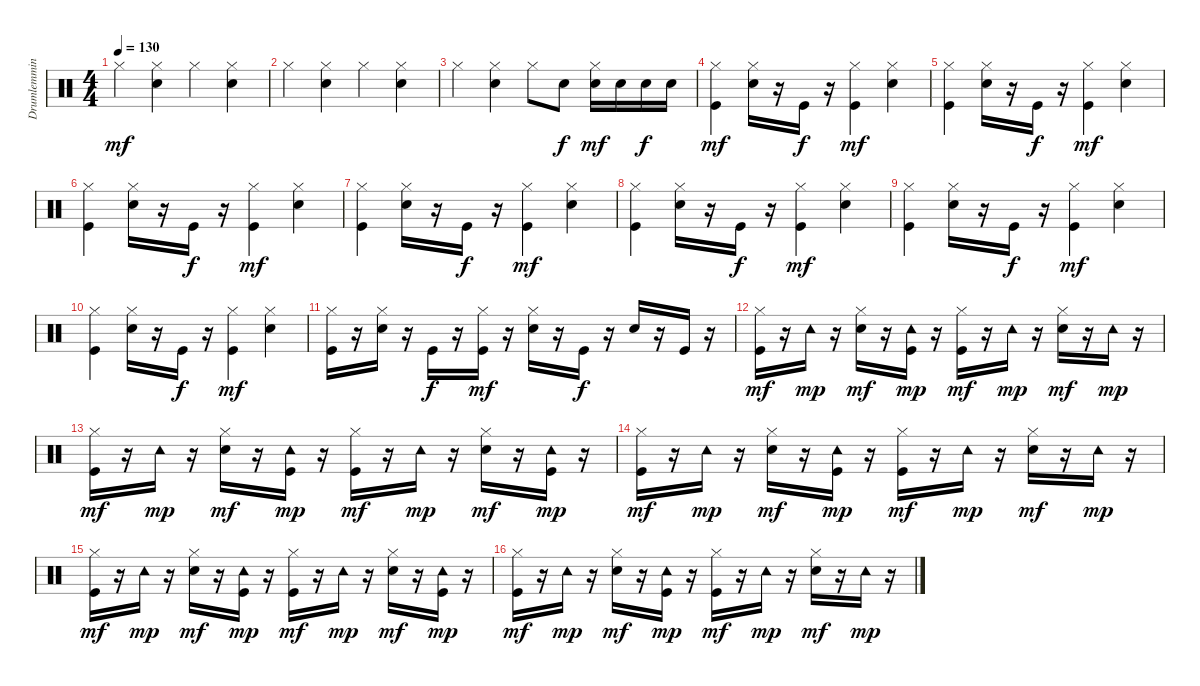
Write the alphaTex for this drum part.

\track ("Drumlemming" "Drumlemmin") {instrument percussion}
\staff {score}
\articulation defaults
\ts (4 4)
\tempo 130
\clef neutral
\ks c "Hi-Hat (closed)".4{dy mf}
("Hand Clap (hit)" "Hi-Hat (closed)").4 "Hi-Hat (closed)".4 ("Hand Clap (hit)" "Hi-Hat (closed)").4 |
"Hi-Hat (closed)".4 ("Hand Clap (hit)" "Hi-Hat (closed)").4 "Hi-Hat (closed)".4 ("Hand Clap (hit)" "Hi-Hat (closed)").4 |
"Hi-Hat (closed)".4 ("Hand Clap (hit)" "Hi-Hat (closed)").4 "Hi-Hat (closed)".8 "Snare (hit) 2".8{dy f} ("Snare (hit) 2" "Hi-Hat (closed)").16{dy mf} "Snare (hit) 2".16 "Snare (hit) 2".16{dy f} "Snare (hit) 2".16 |
("Kick (hit)" "Hi-Hat (closed)").4{dy mf} ("Snare (hit) 2" "Hi-Hat (closed)").16 r.16 "Kick (hit)".16{dy f} r.16 ("Kick (hit)" "Hi-Hat (closed)").4{dy mf} ("Snare (hit) 2" "Hi-Hat (closed)").4 |
("Kick (hit)" "Hi-Hat (closed)").4 ("Snare (hit) 2" "Hi-Hat (closed)").16 r.16 "Kick (hit)".16{dy f} r.16 ("Kick (hit)" "Hi-Hat (closed)").4{dy mf} ("Snare (hit) 2" "Hi-Hat (closed)").4 |
("Kick (hit)" "Hi-Hat (closed)").4 ("Snare (hit) 2" "Hi-Hat (closed)").16 r.16 "Kick (hit)".16{dy f} r.16 ("Kick (hit)" "Hi-Hat (closed)").4{dy mf} ("Snare (hit) 2" "Hi-Hat (closed)").4 |
("Kick (hit)" "Hi-Hat (closed)").4 ("Snare (hit) 2" "Hi-Hat (closed)").16 r.16 "Kick (hit)".16{dy f} r.16 ("Kick (hit)" "Hi-Hat (closed)").4{dy mf} ("Snare (hit) 2" "Hi-Hat (closed)").4 |
("Kick (hit)" "Hi-Hat (closed)").4 ("Snare (hit) 2" "Hi-Hat (closed)").16 r.16 "Kick (hit)".16{dy f} r.16 ("Kick (hit)" "Hi-Hat (closed)").4{dy mf} ("Snare (hit) 2" "Hi-Hat (closed)").4 |
("Kick (hit)" "Hi-Hat (closed)").4 ("Snare (hit) 2" "Hi-Hat (closed)").16 r.16 "Kick (hit)".16{dy f} r.16 ("Kick (hit)" "Hi-Hat (closed)").4{dy mf} ("Snare (hit) 2" "Hi-Hat (closed)").4 |
("Kick (hit)" "Hi-Hat (closed)").4 ("Snare (hit) 2" "Hi-Hat (closed)").16 r.16 "Kick (hit)".16{dy f} r.16 ("Kick (hit)" "Hi-Hat (closed)").4{dy mf} ("Snare (hit) 2" "Hi-Hat (closed)").4 |
("Kick (hit)" "Hi-Hat (closed)").16 r.16 ("Snare (hit) 2" "Hi-Hat (closed)").16 r.16 "Kick (hit)".16{dy f} r.16 ("Kick (hit)" "Hi-Hat (closed)").16{dy mf} r.16 ("Snare (hit) 2" "Hi-Hat (closed)").16 r.16 "Kick (hit)".16{dy f} r.16 "Snare (hit) 2".16 r.16 "Kick (hit)".16 r.16 |
("Kick (hit)" "Hi-Hat (closed)").16{dy mf} r.16 "Tambourine (hit)".16{dy mp} r.16 ("Snare (hit) 2" "Hi-Hat (closed)").16{dy mf} r.16 ("Tambourine (hit)" "Kick (hit)").16{dy mp} r.16 ("Kick (hit)" "Hi-Hat (closed)").16{dy mf} r.16 "Tambourine (hit)".16{dy mp} r.16 ("Snare (hit) 2" "Hi-Hat (closed)").16{dy mf} r.16 "Tambourine (hit)".16{dy mp} r.16 |
("Kick (hit)" "Hi-Hat (closed)").16{dy mf} r.16 "Tambourine (hit)".16{dy mp} r.16 ("Snare (hit) 2" "Hi-Hat (closed)").16{dy mf} r.16 ("Tambourine (hit)" "Kick (hit)").16{dy mp} r.16 ("Kick (hit)" "Hi-Hat (closed)").16{dy mf} r.16 "Tambourine (hit)".16{dy mp} r.16 ("Snare (hit) 2" "Hi-Hat (closed)").16{dy mf} r.16 ("Tambourine (hit)" "Kick (hit)").16{dy mp} r.16 |
("Kick (hit)" "Hi-Hat (closed)").16{dy mf} r.16 "Tambourine (hit)".16{dy mp} r.16 ("Snare (hit) 2" "Hi-Hat (closed)").16{dy mf} r.16 ("Tambourine (hit)" "Kick (hit)").16{dy mp} r.16 ("Kick (hit)" "Hi-Hat (closed)").16{dy mf} r.16 "Tambourine (hit)".16{dy mp} r.16 ("Snare (hit) 2" "Hi-Hat (closed)").16{dy mf} r.16 "Tambourine (hit)".16{dy mp} r.16 |
("Kick (hit)" "Hi-Hat (closed)").16{dy mf} r.16 "Tambourine (hit)".16{dy mp} r.16 ("Snare (hit) 2" "Hi-Hat (closed)").16{dy mf} r.16 ("Tambourine (hit)" "Kick (hit)").16{dy mp} r.16 ("Kick (hit)" "Hi-Hat (closed)").16{dy mf} r.16 "Tambourine (hit)".16{dy mp} r.16 ("Snare (hit) 2" "Hi-Hat (closed)").16{dy mf} r.16 ("Tambourine (hit)" "Kick (hit)").16{dy mp} r.16 |
("Kick (hit)" "Hi-Hat (closed)").16{dy mf} r.16 "Tambourine (hit)".16{dy mp} r.16 ("Snare (hit) 2" "Hi-Hat (closed)").16{dy mf} r.16 ("Tambourine (hit)" "Kick (hit)").16{dy mp} r.16 ("Kick (hit)" "Hi-Hat (closed)").16{dy mf} r.16 "Tambourine (hit)".16{dy mp} r.16 ("Snare (hit) 2" "Hi-Hat (closed)").16{dy mf} r.16 "Tambourine (hit)".16{dy mp} r.16
